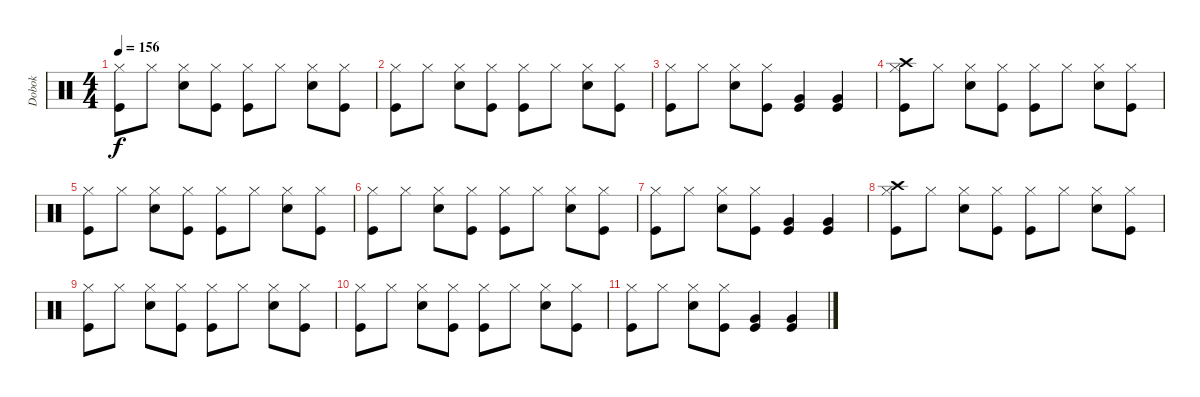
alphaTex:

\track ("Dobok" "Dobok") {instrument percussion}
\staff {score}
\articulation defaults
\ts (4 4)
\tempo 156
\clef neutral
\ks c
("Hi-Hat (closed)" "Kick (hit)").8{dy f} "Hi-Hat (closed)".8 ("Hi-Hat (closed)" "Electric Snare (hit)").8 ("Hi-Hat (closed)" "Kick (hit)").8 ("Hi-Hat (closed)" "Kick (hit)").8 "Hi-Hat (closed)".8 ("Hi-Hat (closed)" "Electric Snare (hit)").8 ("Hi-Hat (closed)" "Kick (hit)").8 |
("Hi-Hat (closed)" "Kick (hit)").8 "Hi-Hat (closed)".8 ("Hi-Hat (closed)" "Electric Snare (hit)").8 ("Hi-Hat (closed)" "Kick (hit)").8 ("Hi-Hat (closed)" "Kick (hit)").8 "Hi-Hat (closed)".8 ("Hi-Hat (closed)" "Electric Snare (hit)").8 ("Hi-Hat (closed)" "Kick (hit)").8 |
("Hi-Hat (closed)" "Kick (hit)").8 "Hi-Hat (closed)".8 ("Hi-Hat (closed)" "Electric Snare (hit)").8 ("Hi-Hat (closed)" "Kick (hit)").8 ("Very Low Tom (hit)" "Kick (hit)").4 ("Very Low Tom (hit)" "Kick (hit)").4 |
("Hi-Hat (closed)" "Crash high (hit)" "Kick (hit)").8 "Hi-Hat (closed)".8 ("Hi-Hat (closed)" "Electric Snare (hit)").8 ("Hi-Hat (closed)" "Kick (hit)").8 ("Hi-Hat (closed)" "Kick (hit)").8 "Hi-Hat (closed)".8 ("Hi-Hat (closed)" "Electric Snare (hit)").8 ("Hi-Hat (closed)" "Kick (hit)").8 |
("Hi-Hat (closed)" "Kick (hit)").8 "Hi-Hat (closed)".8 ("Hi-Hat (closed)" "Electric Snare (hit)").8 ("Hi-Hat (closed)" "Kick (hit)").8 ("Hi-Hat (closed)" "Kick (hit)").8 "Hi-Hat (closed)".8 ("Hi-Hat (closed)" "Electric Snare (hit)").8 ("Hi-Hat (closed)" "Kick (hit)").8 |
("Hi-Hat (closed)" "Kick (hit)").8 "Hi-Hat (closed)".8 ("Hi-Hat (closed)" "Electric Snare (hit)").8 ("Hi-Hat (closed)" "Kick (hit)").8 ("Hi-Hat (closed)" "Kick (hit)").8 "Hi-Hat (closed)".8 ("Hi-Hat (closed)" "Electric Snare (hit)").8 ("Hi-Hat (closed)" "Kick (hit)").8 |
("Hi-Hat (closed)" "Kick (hit)").8 "Hi-Hat (closed)".8 ("Hi-Hat (closed)" "Electric Snare (hit)").8 ("Hi-Hat (closed)" "Kick (hit)").8 ("Very Low Tom (hit)" "Kick (hit)").4 ("Very Low Tom (hit)" "Kick (hit)").4 |
("Hi-Hat (closed)" "Crash high (hit)" "Kick (hit)").8 "Hi-Hat (closed)".8 ("Hi-Hat (closed)" "Electric Snare (hit)").8 ("Hi-Hat (closed)" "Kick (hit)").8 ("Hi-Hat (closed)" "Kick (hit)").8 "Hi-Hat (closed)".8 ("Hi-Hat (closed)" "Electric Snare (hit)").8 ("Hi-Hat (closed)" "Kick (hit)").8 |
("Hi-Hat (closed)" "Kick (hit)").8 "Hi-Hat (closed)".8 ("Hi-Hat (closed)" "Electric Snare (hit)").8 ("Hi-Hat (closed)" "Kick (hit)").8 ("Hi-Hat (closed)" "Kick (hit)").8 "Hi-Hat (closed)".8 ("Hi-Hat (closed)" "Electric Snare (hit)").8 ("Hi-Hat (closed)" "Kick (hit)").8 |
("Hi-Hat (closed)" "Kick (hit)").8 "Hi-Hat (closed)".8 ("Hi-Hat (closed)" "Electric Snare (hit)").8 ("Hi-Hat (closed)" "Kick (hit)").8 ("Hi-Hat (closed)" "Kick (hit)").8 "Hi-Hat (closed)".8 ("Hi-Hat (closed)" "Electric Snare (hit)").8 ("Hi-Hat (closed)" "Kick (hit)").8 |
("Hi-Hat (closed)" "Kick (hit)").8 "Hi-Hat (closed)".8 ("Hi-Hat (closed)" "Electric Snare (hit)").8 ("Hi-Hat (closed)" "Kick (hit)").8 ("Very Low Tom (hit)" "Kick (hit)").4 ("Very Low Tom (hit)" "Kick (hit)").4
